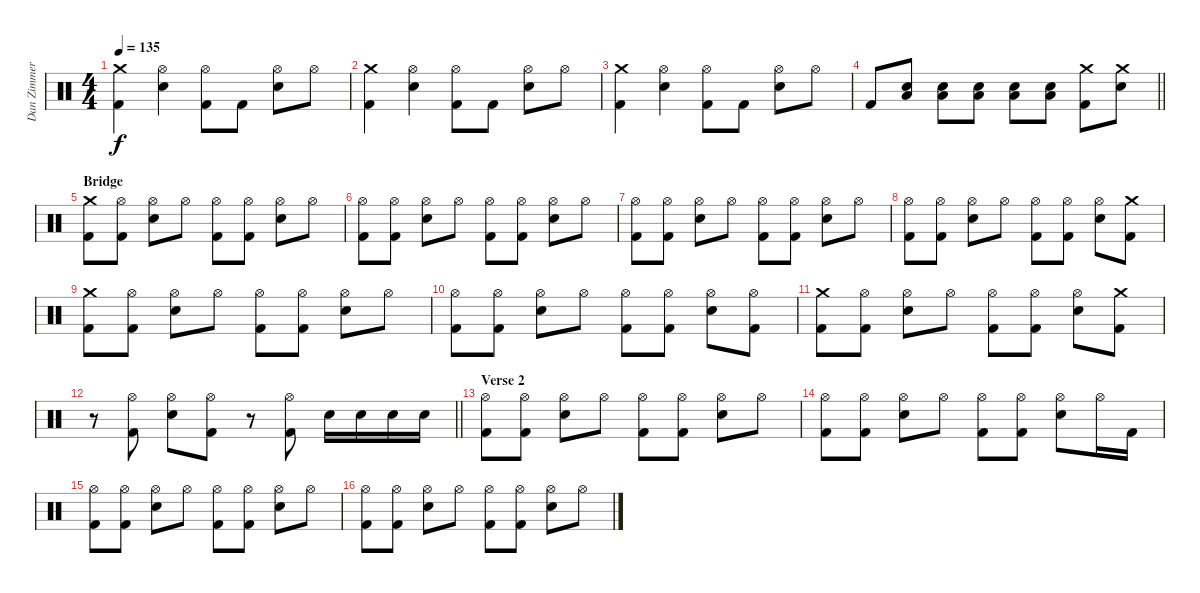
\track ("Dan Zimmermann" "Dan Zimmer") {instrument percussion}
\staff {score}
\articulation defaults
\ts (4 4)
\tempo 135
\clef neutral
\ks c
("Crash medium (hit)" "Kick (hit) 2").4{dy f} ("Hi-Hat (open)" "Electric Snare (hit)").4 ("Hi-Hat (open)" "Kick (hit) 2").8 "Kick (hit) 2".8 ("Hi-Hat (open)" "Electric Snare (hit)").8 "Hi-Hat (open)".8 |
("Crash medium (hit)" "Kick (hit) 2").4 ("Hi-Hat (open)" "Electric Snare (hit)").4 ("Hi-Hat (open)" "Kick (hit) 2").8 "Kick (hit) 2".8 ("Hi-Hat (open)" "Electric Snare (hit)").8 "Hi-Hat (open)".8 |
("Crash medium (hit)" "Kick (hit) 2").4 ("Hi-Hat (open)" "Electric Snare (hit)").4 ("Hi-Hat (open)" "Kick (hit) 2").8 "Kick (hit) 2".8 ("Hi-Hat (open)" "Electric Snare (hit)").8 "Hi-Hat (open)".8 |
\barLineRight lightlight "Kick (hit) 2".8
("Electric Snare (hit)" "Low Floor Tom (hit)").8 ("Electric Snare (hit)" "Low Floor Tom (hit)").8 ("Electric Snare (hit)" "Low Floor Tom (hit)").8 ("Electric Snare (hit)" "Low Floor Tom (hit)").8 ("Electric Snare (hit)" "Low Floor Tom (hit)").8 ("Crash medium (hit)" "Kick (hit) 2").8 ("Crash medium (hit)" "Electric Snare (hit)").8 |
\section ("" "Bridge")
("Crash medium (hit)" "Kick (hit) 2").8 ("Hi-Hat (open)" "Kick (hit) 2").8 ("Hi-Hat (open)" "Electric Snare (hit)").8 "Hi-Hat (open)".8 ("Hi-Hat (open)" "Kick (hit) 2").8 ("Hi-Hat (open)" "Kick (hit) 2").8 ("Hi-Hat (open)" "Electric Snare (hit)").8 "Hi-Hat (open)".8 |
("Hi-Hat (open)" "Kick (hit) 2").8 ("Hi-Hat (open)" "Kick (hit) 2").8 ("Hi-Hat (open)" "Electric Snare (hit)").8 "Hi-Hat (open)".8 ("Hi-Hat (open)" "Kick (hit) 2").8 ("Hi-Hat (open)" "Kick (hit) 2").8 ("Hi-Hat (open)" "Electric Snare (hit)").8 "Hi-Hat (open)".8 |
("Hi-Hat (open)" "Kick (hit) 2").8 ("Hi-Hat (open)" "Kick (hit) 2").8 ("Hi-Hat (open)" "Electric Snare (hit)").8 "Hi-Hat (open)".8 ("Hi-Hat (open)" "Kick (hit) 2").8 ("Hi-Hat (open)" "Kick (hit) 2").8 ("Hi-Hat (open)" "Electric Snare (hit)").8 "Hi-Hat (open)".8 |
("Hi-Hat (open)" "Kick (hit) 2").8 ("Hi-Hat (open)" "Kick (hit) 2").8 ("Hi-Hat (open)" "Electric Snare (hit)").8 "Hi-Hat (open)".8 ("Hi-Hat (open)" "Kick (hit) 2").8 ("Hi-Hat (open)" "Kick (hit) 2").8 ("Hi-Hat (open)" "Electric Snare (hit)").8 ("Crash medium (hit)" "Kick (hit) 2").8 |
("Crash medium (hit)" "Kick (hit) 2").8 ("Hi-Hat (open)" "Kick (hit) 2").8 ("Hi-Hat (open)" "Electric Snare (hit)").8 "Hi-Hat (open)".8 ("Hi-Hat (open)" "Kick (hit) 2").8 ("Hi-Hat (open)" "Kick (hit) 2").8 ("Hi-Hat (open)" "Electric Snare (hit)").8 "Hi-Hat (open)".8 |
("Hi-Hat (open)" "Kick (hit) 2").8 ("Hi-Hat (open)" "Kick (hit) 2").8 ("Hi-Hat (open)" "Electric Snare (hit)").8 "Hi-Hat (open)".8 ("Hi-Hat (open)" "Kick (hit) 2").8 ("Hi-Hat (open)" "Kick (hit) 2").8 ("Hi-Hat (open)" "Electric Snare (hit)").8 ("Hi-Hat (open)" "Kick (hit) 2").8 |
("Crash medium (hit)" "Kick (hit) 2").8 ("Hi-Hat (open)" "Kick (hit) 2").8 ("Hi-Hat (open)" "Electric Snare (hit)").8 "Hi-Hat (open)".8 ("Hi-Hat (open)" "Kick (hit) 2").8 ("Hi-Hat (open)" "Kick (hit) 2").8 ("Hi-Hat (open)" "Electric Snare (hit)").8 ("Crash medium (hit)" "Kick (hit) 2").8 |
\barLineRight lightlight
r.8 ("Hi-Hat (open)" "Kick (hit) 2").8 ("Hi-Hat (open)" "Electric Snare (hit)").8 ("Hi-Hat (open)" "Kick (hit) 2").8 r.8 ("Hi-Hat (open)" "Kick (hit) 2").8 "Electric Snare (hit)".16 "Electric Snare (hit)".16 "Electric Snare (hit)".16 "Electric Snare (hit)".16 |
\section ("" "Verse 2")
("Hi-Hat (open)" "Kick (hit) 2").8 ("Hi-Hat (open)" "Kick (hit) 2").8 ("Hi-Hat (open)" "Electric Snare (hit)").8 "Hi-Hat (open)".8 ("Hi-Hat (open)" "Kick (hit) 2").8 ("Hi-Hat (open)" "Kick (hit) 2").8 ("Hi-Hat (open)" "Electric Snare (hit)").8 "Hi-Hat (open)".8 |
("Hi-Hat (open)" "Kick (hit) 2").8 ("Hi-Hat (open)" "Kick (hit) 2").8 ("Hi-Hat (open)" "Electric Snare (hit)").8 "Hi-Hat (open)".8 ("Hi-Hat (open)" "Kick (hit) 2").8 ("Hi-Hat (open)" "Kick (hit) 2").8 ("Hi-Hat (open)" "Electric Snare (hit)").8 "Hi-Hat (open)".16 "Kick (hit) 2".16 |
("Hi-Hat (open)" "Kick (hit) 2").8 ("Hi-Hat (open)" "Kick (hit) 2").8 ("Hi-Hat (open)" "Electric Snare (hit)").8 "Hi-Hat (open)".8 ("Hi-Hat (open)" "Kick (hit) 2").8 ("Hi-Hat (open)" "Kick (hit) 2").8 ("Hi-Hat (open)" "Electric Snare (hit)").8 "Hi-Hat (open)".8 |
("Hi-Hat (open)" "Kick (hit) 2").8 ("Hi-Hat (open)" "Kick (hit) 2").8 ("Hi-Hat (open)" "Electric Snare (hit)").8 "Hi-Hat (open)".8 ("Hi-Hat (open)" "Kick (hit) 2").8 ("Hi-Hat (open)" "Kick (hit) 2").8 ("Hi-Hat (open)" "Electric Snare (hit)").8 "Hi-Hat (open)".8
